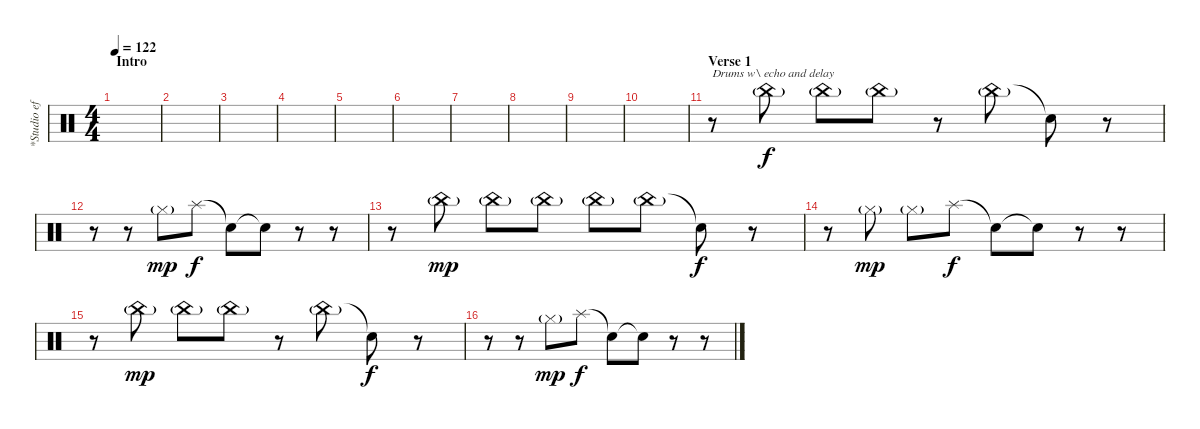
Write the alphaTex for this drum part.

\track ("*Studio effects (Sampled drums)" "*Studio ef") {instrument percussion}
\staff {score}
\articulation defaults
\ts (4 4)
\section ("" "Intro")
\tempo 122
\clef neutral
\ks c
|
|
|
|
|
|
|
|
|
|
\section ("" "Verse 1")
r.8{txt "Drums w\\ echo and delay"} "China (hit)"{g}.8{balance 4} "China (hit)"{g}.8{balance 4} "China (hit)"{g}.8{balance 4} r.8 "China (hit)"{g}.8{balance 4} "Snare (hit)"{t}.8{dy f} r.8 |
r.8 r.8 "Hi-Hat (closed)"{g}.8{dy mp} "Splash (hit)".8{dy f balance 12} "Snare (hit)"{t}.8 "Snare (hit)"{t}.8 r.8 r.8 |
r.8 "China (hit)"{g}.8{dy mp balance 4} "China (hit)"{g}.8{balance 4} "China (hit)"{g}.8{balance 4} "China (hit)"{g}.8{balance 4} "China (hit)"{g}.8{balance 4} "Snare (hit)"{t}.8{dy f} r.8 |
r.8 "Hi-Hat (closed)"{g}.8{dy mp} "Hi-Hat (closed)"{g}.8 "Splash (hit)".8{dy f balance 12} "Snare (hit)"{t}.8 "Snare (hit)"{t}.8 r.8 r.8 |
r.8 "China (hit)"{g}.8{dy mp balance 4} "China (hit)"{g}.8{balance 4} "China (hit)"{g}.8{balance 4} r.8 "China (hit)"{g}.8{balance 4} "Snare (hit)"{t}.8{dy f} r.8 |
r.8 r.8 "Hi-Hat (closed)"{g}.8{dy mp} "Splash (hit)".8{dy f balance 12} "Snare (hit)"{t}.8 "Snare (hit)"{t}.8 r.8 r.8
